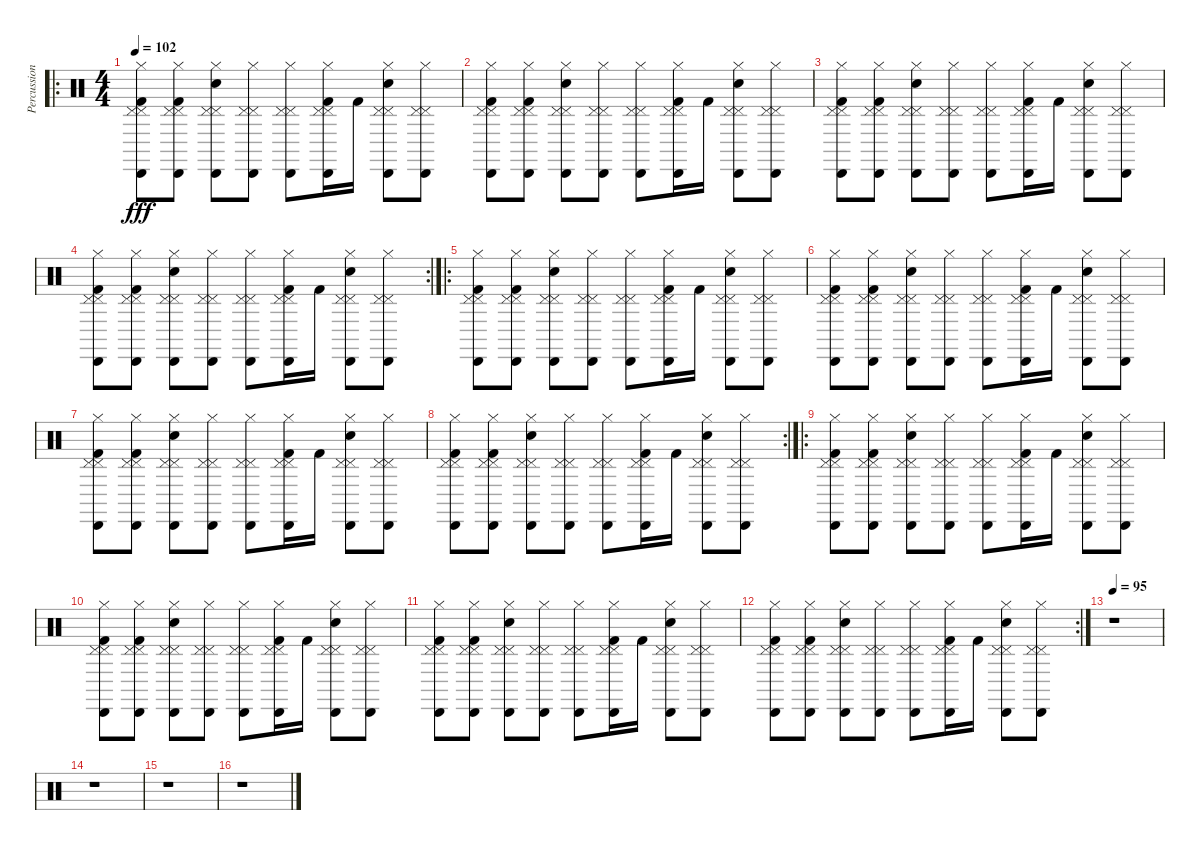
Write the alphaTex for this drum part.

\track ("Percussion" "Percussion") {instrument percussion}
\staff {score}
\articulation defaults
\ro
\ts (4 4)
\tempo 102
\clef neutral
\ks c
("Hi-Hat (closed)" "Kick (hit) 2" "Cabasa (hit)" "Pedal Hi-Hat (hit)" "Pedal Hi-Hat (hit)").8{dy fff} ("Hi-Hat (closed)" "Kick (hit) 2" "Cabasa (hit)" "Pedal Hi-Hat (hit)" "Pedal Hi-Hat (hit)").8 ("Hi-Hat (closed)" "Cabasa (hit)" "Electric Snare (hit)" "Pedal Hi-Hat (hit)" "Pedal Hi-Hat (hit)").8 ("Hi-Hat (closed)" "Cabasa (hit)" "Pedal Hi-Hat (hit)" "Pedal Hi-Hat (hit)").8 ("Hi-Hat (closed)" "Cabasa (hit)" "Pedal Hi-Hat (hit)" "Pedal Hi-Hat (hit)").8 ("Hi-Hat (closed)" "Kick (hit) 2" "Cabasa (hit)" "Pedal Hi-Hat (hit)" "Pedal Hi-Hat (hit)").16 "Kick (hit) 2".16 ("Hi-Hat (closed)" "Cabasa (hit)" "Electric Snare (hit)" "Pedal Hi-Hat (hit)" "Pedal Hi-Hat (hit)").8 ("Hi-Hat (closed)" "Cabasa (hit)" "Pedal Hi-Hat (hit)" "Pedal Hi-Hat (hit)").8 |
("Hi-Hat (closed)" "Kick (hit) 2" "Cabasa (hit)" "Pedal Hi-Hat (hit)" "Pedal Hi-Hat (hit)").8 ("Hi-Hat (closed)" "Kick (hit) 2" "Cabasa (hit)" "Pedal Hi-Hat (hit)" "Pedal Hi-Hat (hit)").8 ("Hi-Hat (closed)" "Cabasa (hit)" "Electric Snare (hit)" "Pedal Hi-Hat (hit)" "Pedal Hi-Hat (hit)").8 ("Hi-Hat (closed)" "Cabasa (hit)" "Pedal Hi-Hat (hit)" "Pedal Hi-Hat (hit)").8 ("Hi-Hat (closed)" "Cabasa (hit)" "Pedal Hi-Hat (hit)" "Pedal Hi-Hat (hit)").8 ("Hi-Hat (closed)" "Kick (hit) 2" "Cabasa (hit)" "Pedal Hi-Hat (hit)" "Pedal Hi-Hat (hit)").16 "Kick (hit) 2".16 ("Hi-Hat (closed)" "Cabasa (hit)" "Electric Snare (hit)" "Pedal Hi-Hat (hit)" "Pedal Hi-Hat (hit)").8 ("Hi-Hat (closed)" "Cabasa (hit)" "Pedal Hi-Hat (hit)" "Pedal Hi-Hat (hit)").8 |
("Hi-Hat (closed)" "Kick (hit) 2" "Cabasa (hit)" "Pedal Hi-Hat (hit)" "Pedal Hi-Hat (hit)").8 ("Hi-Hat (closed)" "Kick (hit) 2" "Cabasa (hit)" "Pedal Hi-Hat (hit)" "Pedal Hi-Hat (hit)").8 ("Hi-Hat (closed)" "Cabasa (hit)" "Electric Snare (hit)" "Pedal Hi-Hat (hit)" "Pedal Hi-Hat (hit)").8 ("Hi-Hat (closed)" "Cabasa (hit)" "Pedal Hi-Hat (hit)" "Pedal Hi-Hat (hit)").8 ("Hi-Hat (closed)" "Cabasa (hit)" "Pedal Hi-Hat (hit)" "Pedal Hi-Hat (hit)").8 ("Hi-Hat (closed)" "Kick (hit) 2" "Cabasa (hit)" "Pedal Hi-Hat (hit)" "Pedal Hi-Hat (hit)").16 "Kick (hit) 2".16 ("Hi-Hat (closed)" "Cabasa (hit)" "Electric Snare (hit)" "Pedal Hi-Hat (hit)" "Pedal Hi-Hat (hit)").8 ("Hi-Hat (closed)" "Cabasa (hit)" "Pedal Hi-Hat (hit)" "Pedal Hi-Hat (hit)").8 |
\rc 2
("Hi-Hat (closed)" "Kick (hit) 2" "Cabasa (hit)" "Pedal Hi-Hat (hit)" "Pedal Hi-Hat (hit)").8 ("Hi-Hat (closed)" "Kick (hit) 2" "Cabasa (hit)" "Pedal Hi-Hat (hit)" "Pedal Hi-Hat (hit)").8 ("Hi-Hat (closed)" "Cabasa (hit)" "Electric Snare (hit)" "Pedal Hi-Hat (hit)" "Pedal Hi-Hat (hit)").8 ("Hi-Hat (closed)" "Cabasa (hit)" "Pedal Hi-Hat (hit)" "Pedal Hi-Hat (hit)").8 ("Hi-Hat (closed)" "Cabasa (hit)" "Pedal Hi-Hat (hit)" "Pedal Hi-Hat (hit)").8 ("Hi-Hat (closed)" "Kick (hit) 2" "Cabasa (hit)" "Pedal Hi-Hat (hit)" "Pedal Hi-Hat (hit)").16 "Kick (hit) 2".16 ("Hi-Hat (closed)" "Cabasa (hit)" "Electric Snare (hit)" "Pedal Hi-Hat (hit)" "Pedal Hi-Hat (hit)").8 ("Hi-Hat (closed)" "Cabasa (hit)" "Pedal Hi-Hat (hit)" "Pedal Hi-Hat (hit)").8 |
\ro
("Hi-Hat (closed)" "Kick (hit) 2" "Cabasa (hit)" "Pedal Hi-Hat (hit)" "Pedal Hi-Hat (hit)").8 ("Hi-Hat (closed)" "Kick (hit) 2" "Cabasa (hit)" "Pedal Hi-Hat (hit)" "Pedal Hi-Hat (hit)").8 ("Hi-Hat (closed)" "Cabasa (hit)" "Electric Snare (hit)" "Pedal Hi-Hat (hit)" "Pedal Hi-Hat (hit)").8 ("Hi-Hat (closed)" "Cabasa (hit)" "Pedal Hi-Hat (hit)" "Pedal Hi-Hat (hit)").8 ("Hi-Hat (closed)" "Cabasa (hit)" "Pedal Hi-Hat (hit)" "Pedal Hi-Hat (hit)").8 ("Hi-Hat (closed)" "Kick (hit) 2" "Cabasa (hit)" "Pedal Hi-Hat (hit)" "Pedal Hi-Hat (hit)").16 "Kick (hit) 2".16 ("Hi-Hat (closed)" "Cabasa (hit)" "Electric Snare (hit)" "Pedal Hi-Hat (hit)" "Pedal Hi-Hat (hit)").8 ("Hi-Hat (closed)" "Cabasa (hit)" "Pedal Hi-Hat (hit)" "Pedal Hi-Hat (hit)").8 |
("Hi-Hat (closed)" "Kick (hit) 2" "Cabasa (hit)" "Pedal Hi-Hat (hit)" "Pedal Hi-Hat (hit)").8 ("Hi-Hat (closed)" "Kick (hit) 2" "Cabasa (hit)" "Pedal Hi-Hat (hit)" "Pedal Hi-Hat (hit)").8 ("Hi-Hat (closed)" "Cabasa (hit)" "Electric Snare (hit)" "Pedal Hi-Hat (hit)" "Pedal Hi-Hat (hit)").8 ("Hi-Hat (closed)" "Cabasa (hit)" "Pedal Hi-Hat (hit)" "Pedal Hi-Hat (hit)").8 ("Hi-Hat (closed)" "Cabasa (hit)" "Pedal Hi-Hat (hit)" "Pedal Hi-Hat (hit)").8 ("Hi-Hat (closed)" "Kick (hit) 2" "Cabasa (hit)" "Pedal Hi-Hat (hit)" "Pedal Hi-Hat (hit)").16 "Kick (hit) 2".16 ("Hi-Hat (closed)" "Cabasa (hit)" "Electric Snare (hit)" "Pedal Hi-Hat (hit)" "Pedal Hi-Hat (hit)").8 ("Hi-Hat (closed)" "Cabasa (hit)" "Pedal Hi-Hat (hit)" "Pedal Hi-Hat (hit)").8 |
("Hi-Hat (closed)" "Kick (hit) 2" "Cabasa (hit)" "Pedal Hi-Hat (hit)" "Pedal Hi-Hat (hit)").8 ("Hi-Hat (closed)" "Kick (hit) 2" "Cabasa (hit)" "Pedal Hi-Hat (hit)" "Pedal Hi-Hat (hit)").8 ("Hi-Hat (closed)" "Cabasa (hit)" "Electric Snare (hit)" "Pedal Hi-Hat (hit)" "Pedal Hi-Hat (hit)").8 ("Hi-Hat (closed)" "Cabasa (hit)" "Pedal Hi-Hat (hit)" "Pedal Hi-Hat (hit)").8 ("Hi-Hat (closed)" "Cabasa (hit)" "Pedal Hi-Hat (hit)" "Pedal Hi-Hat (hit)").8 ("Hi-Hat (closed)" "Kick (hit) 2" "Cabasa (hit)" "Pedal Hi-Hat (hit)" "Pedal Hi-Hat (hit)").16 "Kick (hit) 2".16 ("Hi-Hat (closed)" "Cabasa (hit)" "Electric Snare (hit)" "Pedal Hi-Hat (hit)" "Pedal Hi-Hat (hit)").8 ("Hi-Hat (closed)" "Cabasa (hit)" "Pedal Hi-Hat (hit)" "Pedal Hi-Hat (hit)").8 |
\rc 2
("Hi-Hat (closed)" "Kick (hit) 2" "Cabasa (hit)" "Pedal Hi-Hat (hit)" "Pedal Hi-Hat (hit)").8 ("Hi-Hat (closed)" "Kick (hit) 2" "Cabasa (hit)" "Pedal Hi-Hat (hit)" "Pedal Hi-Hat (hit)").8 ("Hi-Hat (closed)" "Cabasa (hit)" "Electric Snare (hit)" "Pedal Hi-Hat (hit)" "Pedal Hi-Hat (hit)").8 ("Hi-Hat (closed)" "Cabasa (hit)" "Pedal Hi-Hat (hit)" "Pedal Hi-Hat (hit)").8 ("Hi-Hat (closed)" "Cabasa (hit)" "Pedal Hi-Hat (hit)" "Pedal Hi-Hat (hit)").8 ("Hi-Hat (closed)" "Kick (hit) 2" "Cabasa (hit)" "Pedal Hi-Hat (hit)" "Pedal Hi-Hat (hit)").16 "Kick (hit) 2".16 ("Hi-Hat (closed)" "Cabasa (hit)" "Electric Snare (hit)" "Pedal Hi-Hat (hit)" "Pedal Hi-Hat (hit)").8 ("Hi-Hat (closed)" "Cabasa (hit)" "Pedal Hi-Hat (hit)" "Pedal Hi-Hat (hit)").8 |
\ro
("Hi-Hat (closed)" "Kick (hit) 2" "Cabasa (hit)" "Pedal Hi-Hat (hit)" "Pedal Hi-Hat (hit)").8 ("Hi-Hat (closed)" "Kick (hit) 2" "Cabasa (hit)" "Pedal Hi-Hat (hit)" "Pedal Hi-Hat (hit)").8 ("Hi-Hat (closed)" "Cabasa (hit)" "Electric Snare (hit)" "Pedal Hi-Hat (hit)" "Pedal Hi-Hat (hit)").8 ("Hi-Hat (closed)" "Cabasa (hit)" "Pedal Hi-Hat (hit)" "Pedal Hi-Hat (hit)").8 ("Hi-Hat (closed)" "Cabasa (hit)" "Pedal Hi-Hat (hit)" "Pedal Hi-Hat (hit)").8 ("Hi-Hat (closed)" "Kick (hit) 2" "Cabasa (hit)" "Pedal Hi-Hat (hit)" "Pedal Hi-Hat (hit)").16 "Kick (hit) 2".16 ("Hi-Hat (closed)" "Cabasa (hit)" "Electric Snare (hit)" "Pedal Hi-Hat (hit)" "Pedal Hi-Hat (hit)").8 ("Hi-Hat (closed)" "Cabasa (hit)" "Pedal Hi-Hat (hit)" "Pedal Hi-Hat (hit)").8 |
("Hi-Hat (closed)" "Kick (hit) 2" "Cabasa (hit)" "Pedal Hi-Hat (hit)" "Pedal Hi-Hat (hit)").8 ("Hi-Hat (closed)" "Kick (hit) 2" "Cabasa (hit)" "Pedal Hi-Hat (hit)" "Pedal Hi-Hat (hit)").8 ("Hi-Hat (closed)" "Cabasa (hit)" "Electric Snare (hit)" "Pedal Hi-Hat (hit)" "Pedal Hi-Hat (hit)").8 ("Hi-Hat (closed)" "Cabasa (hit)" "Pedal Hi-Hat (hit)" "Pedal Hi-Hat (hit)").8 ("Hi-Hat (closed)" "Cabasa (hit)" "Pedal Hi-Hat (hit)" "Pedal Hi-Hat (hit)").8 ("Hi-Hat (closed)" "Kick (hit) 2" "Cabasa (hit)" "Pedal Hi-Hat (hit)" "Pedal Hi-Hat (hit)").16 "Kick (hit) 2".16 ("Hi-Hat (closed)" "Cabasa (hit)" "Electric Snare (hit)" "Pedal Hi-Hat (hit)" "Pedal Hi-Hat (hit)").8 ("Hi-Hat (closed)" "Cabasa (hit)" "Pedal Hi-Hat (hit)" "Pedal Hi-Hat (hit)").8 |
("Hi-Hat (closed)" "Kick (hit) 2" "Cabasa (hit)" "Pedal Hi-Hat (hit)" "Pedal Hi-Hat (hit)").8 ("Hi-Hat (closed)" "Kick (hit) 2" "Cabasa (hit)" "Pedal Hi-Hat (hit)" "Pedal Hi-Hat (hit)").8 ("Hi-Hat (closed)" "Cabasa (hit)" "Electric Snare (hit)" "Pedal Hi-Hat (hit)" "Pedal Hi-Hat (hit)").8 ("Hi-Hat (closed)" "Cabasa (hit)" "Pedal Hi-Hat (hit)" "Pedal Hi-Hat (hit)").8 ("Hi-Hat (closed)" "Cabasa (hit)" "Pedal Hi-Hat (hit)" "Pedal Hi-Hat (hit)").8 ("Hi-Hat (closed)" "Kick (hit) 2" "Cabasa (hit)" "Pedal Hi-Hat (hit)" "Pedal Hi-Hat (hit)").16 "Kick (hit) 2".16 ("Hi-Hat (closed)" "Cabasa (hit)" "Electric Snare (hit)" "Pedal Hi-Hat (hit)" "Pedal Hi-Hat (hit)").8 ("Hi-Hat (closed)" "Cabasa (hit)" "Pedal Hi-Hat (hit)" "Pedal Hi-Hat (hit)").8 |
\rc 2
("Hi-Hat (closed)" "Kick (hit) 2" "Cabasa (hit)" "Pedal Hi-Hat (hit)" "Pedal Hi-Hat (hit)").8 ("Hi-Hat (closed)" "Kick (hit) 2" "Cabasa (hit)" "Pedal Hi-Hat (hit)" "Pedal Hi-Hat (hit)").8 ("Hi-Hat (closed)" "Cabasa (hit)" "Electric Snare (hit)" "Pedal Hi-Hat (hit)" "Pedal Hi-Hat (hit)").8 ("Hi-Hat (closed)" "Cabasa (hit)" "Pedal Hi-Hat (hit)" "Pedal Hi-Hat (hit)").8 ("Hi-Hat (closed)" "Cabasa (hit)" "Pedal Hi-Hat (hit)" "Pedal Hi-Hat (hit)").8 ("Hi-Hat (closed)" "Kick (hit) 2" "Cabasa (hit)" "Pedal Hi-Hat (hit)" "Pedal Hi-Hat (hit)").16 "Kick (hit) 2".16 ("Hi-Hat (closed)" "Cabasa (hit)" "Electric Snare (hit)" "Pedal Hi-Hat (hit)" "Pedal Hi-Hat (hit)").8 ("Hi-Hat (closed)" "Cabasa (hit)" "Pedal Hi-Hat (hit)" "Pedal Hi-Hat (hit)").8 |
\tempo 102
\tempo 95
r.1 |
r.1 |
r.1 |
r.1
